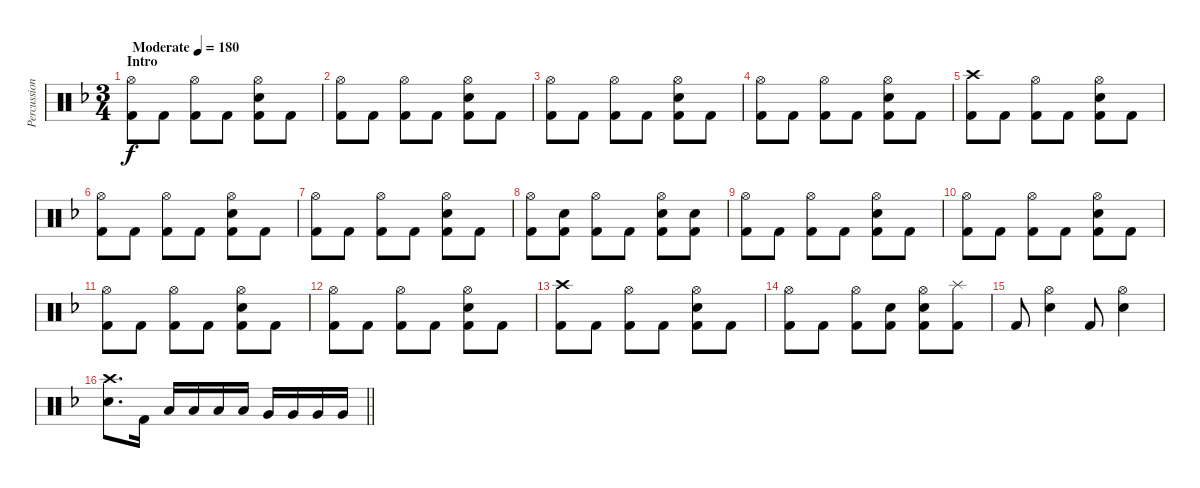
\track ("Percussion" "Percussion") {instrument percussion}
\staff {score}
\articulation defaults
\ts (3 4)
\section ("" "Intro")
\tempo (180 "Moderate")
\clef neutral
\ks dminor
("Hi-Hat (open)" "Kick (hit) 2").8{dy f} "Kick (hit) 2".8 ("Hi-Hat (open)" "Kick (hit) 2").8 "Kick (hit) 2".8 ("Hi-Hat (open)" "Snare (hit) 2" "Kick (hit) 2").8 "Kick (hit) 2".8 |
("Hi-Hat (open)" "Kick (hit) 2").8 "Kick (hit) 2".8 ("Hi-Hat (open)" "Kick (hit) 2").8 "Kick (hit) 2".8 ("Hi-Hat (open)" "Snare (hit) 2" "Kick (hit) 2").8 "Kick (hit) 2".8 |
("Hi-Hat (open)" "Kick (hit) 2").8 "Kick (hit) 2".8 ("Hi-Hat (open)" "Kick (hit) 2").8 "Kick (hit) 2".8 ("Hi-Hat (open)" "Snare (hit) 2" "Kick (hit) 2").8 "Kick (hit) 2".8 |
("Hi-Hat (open)" "Kick (hit) 2").8 "Kick (hit) 2".8 ("Hi-Hat (open)" "Kick (hit) 2").8 "Kick (hit) 2".8 ("Hi-Hat (open)" "Snare (hit) 2" "Kick (hit) 2").8 "Kick (hit) 2".8 |
("Crash high (hit)" "Kick (hit) 2").8 "Kick (hit) 2".8 ("Hi-Hat (open)" "Kick (hit) 2").8 "Kick (hit) 2".8 ("Hi-Hat (open)" "Snare (hit) 2" "Kick (hit) 2").8 "Kick (hit) 2".8 |
("Hi-Hat (open)" "Kick (hit) 2").8 "Kick (hit) 2".8 ("Hi-Hat (open)" "Kick (hit) 2").8 "Kick (hit) 2".8 ("Hi-Hat (open)" "Snare (hit) 2" "Kick (hit) 2").8 "Kick (hit) 2".8 |
("Hi-Hat (open)" "Kick (hit) 2").8 "Kick (hit) 2".8 ("Hi-Hat (open)" "Kick (hit) 2").8 "Kick (hit) 2".8 ("Hi-Hat (open)" "Snare (hit) 2" "Kick (hit) 2").8 "Kick (hit) 2".8 |
("Hi-Hat (open)" "Kick (hit) 2").8 ("Snare (hit) 2" "Kick (hit) 2").8 ("Hi-Hat (open)" "Kick (hit) 2").8 "Kick (hit) 2".8 ("Hi-Hat (open)" "Snare (hit) 2" "Kick (hit) 2").8 ("Snare (hit) 2" "Kick (hit) 2").8 |
("Hi-Hat (open)" "Kick (hit) 2").8 "Kick (hit) 2".8 ("Hi-Hat (open)" "Kick (hit) 2").8 "Kick (hit) 2".8 ("Hi-Hat (open)" "Snare (hit) 2" "Kick (hit) 2").8 "Kick (hit) 2".8 |
("Hi-Hat (open)" "Kick (hit) 2").8 "Kick (hit) 2".8 ("Hi-Hat (open)" "Kick (hit) 2").8 "Kick (hit) 2".8 ("Hi-Hat (open)" "Snare (hit) 2" "Kick (hit) 2").8 "Kick (hit) 2".8 |
("Hi-Hat (open)" "Kick (hit) 2").8 "Kick (hit) 2".8 ("Hi-Hat (open)" "Kick (hit) 2").8 "Kick (hit) 2".8 ("Hi-Hat (open)" "Snare (hit) 2" "Kick (hit) 2").8 "Kick (hit) 2".8 |
("Hi-Hat (open)" "Kick (hit) 2").8 "Kick (hit) 2".8 ("Hi-Hat (open)" "Kick (hit) 2").8 "Kick (hit) 2".8 ("Hi-Hat (open)" "Snare (hit) 2" "Kick (hit) 2").8 "Kick (hit) 2".8 |
("Crash high (hit)" "Kick (hit) 2").8 "Kick (hit) 2".8 ("Hi-Hat (open)" "Kick (hit) 2").8 "Kick (hit) 2".8 ("Hi-Hat (open)" "Snare (hit) 2" "Kick (hit) 2").8 "Kick (hit) 2".8 |
("Hi-Hat (open)" "Kick (hit) 2").8 "Kick (hit) 2".8 ("Hi-Hat (open)" "Kick (hit) 2").8 ("Snare (hit) 2" "Kick (hit) 2").8 ("Hi-Hat (open)" "Snare (hit) 2" "Kick (hit) 2").8 ("Splash (hit)" "Kick (hit) 2").8 |
"Kick (hit) 2".8 ("Hi-Hat (open)" "Snare (hit) 2").4 "Kick (hit) 2".8 ("Hi-Hat (open)" "Snare (hit) 2").4 |
\barLineRight lightlight
("Crash high (hit)" "Snare (hit) 2").8{d} "Kick (hit) 2".16 "Low Tom (hit)".16 "Low Tom (hit)".16 "Low Tom (hit)".16 "Low Tom (hit)".16 "Very Low Tom (hit)".16 "Very Low Tom (hit)".16 "Very Low Tom (hit)".16 "Very Low Tom (hit)".16
